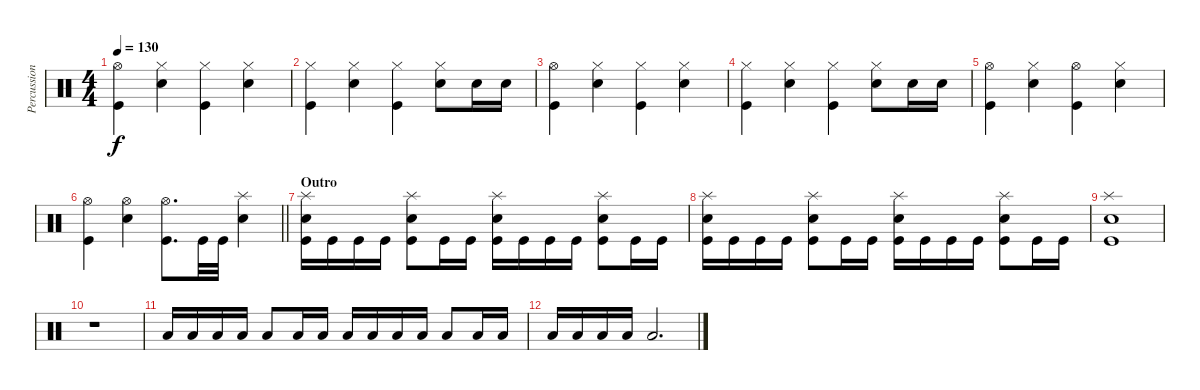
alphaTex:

\track ("Percussion" "Percussion") {instrument percussion}
\staff {score}
\articulation defaults
\ts (4 4)
\tempo 130
\clef neutral
\ks c
("Hi-Hat (open)" "Kick (hit)").4{dy f} ("Hi-Hat (closed)" "Electric Snare (hit)").4 ("Hi-Hat (closed)" "Kick (hit)").4 ("Hi-Hat (closed)" "Electric Snare (hit)").4 |
("Hi-Hat (closed)" "Kick (hit)").4 ("Hi-Hat (closed)" "Electric Snare (hit)").4 ("Hi-Hat (closed)" "Kick (hit)").4 ("Hi-Hat (closed)" "Electric Snare (hit)").8 "Electric Snare (hit)".16 "Electric Snare (hit)".16 |
("Hi-Hat (open)" "Kick (hit)").4 ("Hi-Hat (closed)" "Electric Snare (hit)").4 ("Hi-Hat (closed)" "Kick (hit)").4 ("Hi-Hat (closed)" "Electric Snare (hit)").4 |
("Hi-Hat (closed)" "Kick (hit)").4 ("Hi-Hat (closed)" "Electric Snare (hit)").4 ("Hi-Hat (closed)" "Kick (hit)").4 ("Hi-Hat (closed)" "Electric Snare (hit)").8 "Electric Snare (hit)".16 "Electric Snare (hit)".16 |
("Hi-Hat (open)" "Kick (hit)").4 ("Hi-Hat (closed)" "Electric Snare (hit)").4 ("Hi-Hat (open)" "Kick (hit)").4 ("Hi-Hat (closed)" "Electric Snare (hit)").4 |
\barLineRight lightlight
("Hi-Hat (open)" "Kick (hit)").4 ("Hi-Hat (open)" "Electric Snare (hit)").4 ("Hi-Hat (open)" "Kick (hit)").8{d} "Kick (hit)".32 "Kick (hit)".32 ("Splash (hit)" "Electric Snare (hit)").4 |
\section ("" "Outro")
("Splash (hit)" "Electric Snare (hit)" "Kick (hit)").16 "Kick (hit)".16 "Kick (hit)".16 "Kick (hit)".16 ("Splash (hit)" "Electric Snare (hit)" "Kick (hit)").8 "Kick (hit)".16 "Kick (hit)".16 ("Splash (hit)" "Electric Snare (hit)" "Kick (hit)").16 "Kick (hit)".16 "Kick (hit)".16 "Kick (hit)".16 ("Splash (hit)" "Electric Snare (hit)" "Kick (hit)").8 "Kick (hit)".16 "Kick (hit)".16 |
("Splash (hit)" "Electric Snare (hit)" "Kick (hit)").16 "Kick (hit)".16 "Kick (hit)".16 "Kick (hit)".16 ("Splash (hit)" "Electric Snare (hit)" "Kick (hit)").8 "Kick (hit)".16 "Kick (hit)".16 ("Splash (hit)" "Electric Snare (hit)" "Kick (hit)").16 "Kick (hit)".16 "Kick (hit)".16 "Kick (hit)".16 ("Splash (hit)" "Electric Snare (hit)" "Kick (hit)").8 "Kick (hit)".16 "Kick (hit)".16 |
("Splash (hit)" "Electric Snare (hit)" "Kick (hit)").1 |
r.1 |
"Low Floor Tom (hit)".16 "Low Floor Tom (hit)".16 "Low Floor Tom (hit)".16 "Low Floor Tom (hit)".16 "Low Floor Tom (hit)".8 "Low Floor Tom (hit)".16 "Low Floor Tom (hit)".16 "Low Floor Tom (hit)".16 "Low Floor Tom (hit)".16 "Low Floor Tom (hit)".16 "Low Floor Tom (hit)".16 "Low Floor Tom (hit)".8 "Low Floor Tom (hit)".16 "Low Floor Tom (hit)".16 |
"Low Floor Tom (hit)".16 "Low Floor Tom (hit)".16 "Low Floor Tom (hit)".16 "Low Floor Tom (hit)".16 "Low Floor Tom (hit)".2{d}
